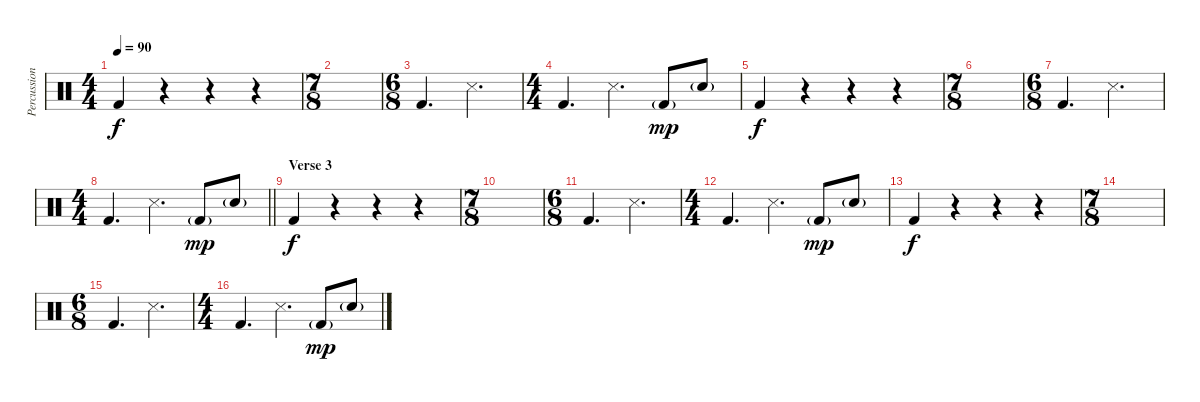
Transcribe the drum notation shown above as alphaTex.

\track ("Percussion" "Percussion") {instrument percussion}
\staff {score}
\articulation defaults
\ts (4 4)
\tempo 90
\clef neutral
\ks c "Kick (hit) 2".4{dy f}
r.4 r.4 r.4 |
\ts (7 8)
|
\ts (6 8)
"Kick (hit) 2".4{d} "Snare (side stick) 3".4{d} |
\ts (4 4)
"Kick (hit) 2".4{d} "Snare (side stick) 3".4{d} "Kick (hit) 2"{g}.8{dy mp} "Snare (hit) 2"{g}.8 |
"Kick (hit) 2".4{dy f} r.4 r.4 r.4 |
\ts (7 8)
|
\ts (6 8)
"Kick (hit) 2".4{d} "Snare (side stick) 3".4{d} |
\ts (4 4)
\barLineRight lightlight "Kick (hit) 2".4{d} "Snare (side stick) 3".4{d} "Kick (hit) 2"{g}.8{dy mp} "Snare (hit) 2"{g}.8
|
\section ("" "Verse 3")
"Kick (hit) 2".4{dy f} r.4 r.4 r.4 |
\ts (7 8)
|
\ts (6 8)
"Kick (hit) 2".4{d} "Snare (side stick) 3".4{d} |
\ts (4 4)
"Kick (hit) 2".4{d} "Snare (side stick) 3".4{d} "Kick (hit) 2"{g}.8{dy mp} "Snare (hit) 2"{g}.8 |
"Kick (hit) 2".4{dy f} r.4 r.4 r.4 |
\ts (7 8)
|
\ts (6 8)
"Kick (hit) 2".4{d} "Snare (side stick) 3".4{d} |
\ts (4 4)
"Kick (hit) 2".4{d} "Snare (side stick) 3".4{d} "Kick (hit) 2"{g}.8{dy mp} "Snare (hit) 2"{g}.8
